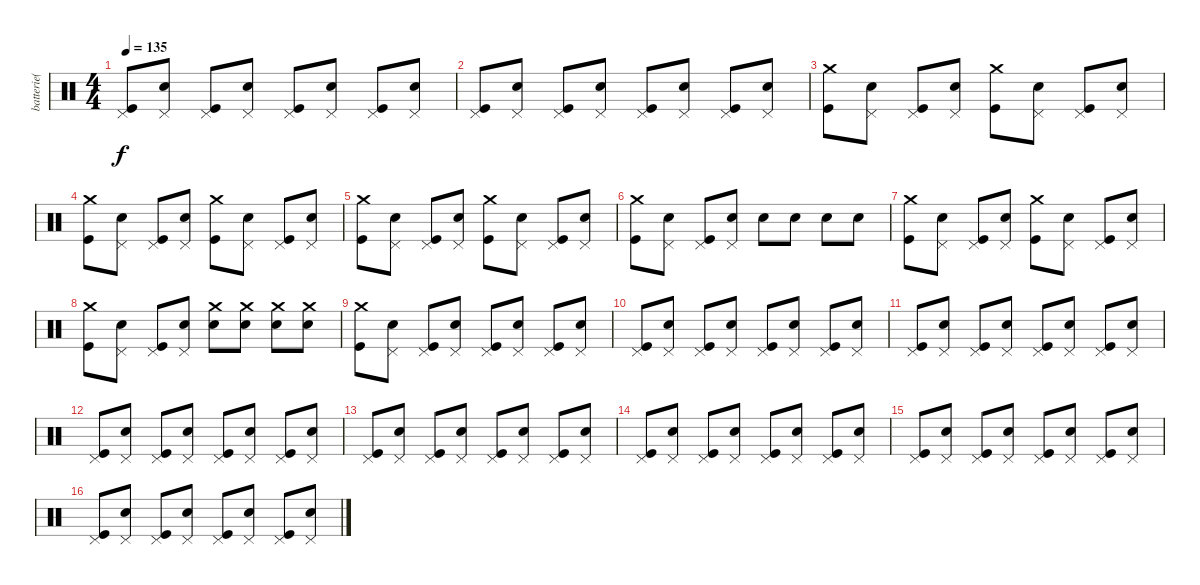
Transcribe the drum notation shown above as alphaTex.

\track ("batterie( Yureesh )" "batterie( ") {instrument percussion}
\staff {score}
\articulation defaults
\ts (4 4)
\tempo 135
\clef neutral
\ks c
("Pedal Hi-Hat (hit)" "Kick (hit)").8{dy f} ("Pedal Hi-Hat (hit)" "Snare (hit) 2").8 ("Pedal Hi-Hat (hit)" "Kick (hit)").8 ("Pedal Hi-Hat (hit)" "Snare (hit) 2").8 ("Pedal Hi-Hat (hit)" "Kick (hit)").8 ("Pedal Hi-Hat (hit)" "Snare (hit) 2").8 ("Pedal Hi-Hat (hit)" "Kick (hit)").8 ("Pedal Hi-Hat (hit)" "Snare (hit) 2").8 |
("Pedal Hi-Hat (hit)" "Kick (hit)").8 ("Pedal Hi-Hat (hit)" "Snare (hit) 2").8 ("Pedal Hi-Hat (hit)" "Kick (hit)").8 ("Pedal Hi-Hat (hit)" "Snare (hit) 2").8 ("Pedal Hi-Hat (hit)" "Kick (hit)").8 ("Pedal Hi-Hat (hit)" "Snare (hit) 2").8 ("Pedal Hi-Hat (hit)" "Kick (hit)").8 ("Pedal Hi-Hat (hit)" "Snare (hit) 2").8 |
("Crash medium (hit)" "Kick (hit)").8 ("Pedal Hi-Hat (hit)" "Snare (hit) 2").8 ("Pedal Hi-Hat (hit)" "Kick (hit)").8 ("Pedal Hi-Hat (hit)" "Snare (hit) 2").8 ("Crash medium (hit)" "Kick (hit)").8 ("Pedal Hi-Hat (hit)" "Snare (hit) 2").8 ("Pedal Hi-Hat (hit)" "Kick (hit)").8 ("Pedal Hi-Hat (hit)" "Snare (hit) 2").8 |
("Crash medium (hit)" "Kick (hit)").8 ("Pedal Hi-Hat (hit)" "Snare (hit) 2").8 ("Pedal Hi-Hat (hit)" "Kick (hit)").8 ("Pedal Hi-Hat (hit)" "Snare (hit) 2").8 ("Crash medium (hit)" "Kick (hit)").8 ("Pedal Hi-Hat (hit)" "Snare (hit) 2").8 ("Pedal Hi-Hat (hit)" "Kick (hit)").8 ("Pedal Hi-Hat (hit)" "Snare (hit) 2").8 |
("Crash medium (hit)" "Kick (hit)").8 ("Pedal Hi-Hat (hit)" "Snare (hit) 2").8 ("Pedal Hi-Hat (hit)" "Kick (hit)").8 ("Pedal Hi-Hat (hit)" "Snare (hit) 2").8 ("Crash medium (hit)" "Kick (hit)").8 ("Pedal Hi-Hat (hit)" "Snare (hit) 2").8 ("Pedal Hi-Hat (hit)" "Kick (hit)").8 ("Pedal Hi-Hat (hit)" "Snare (hit) 2").8 |
("Crash medium (hit)" "Kick (hit)").8 ("Pedal Hi-Hat (hit)" "Snare (hit) 2").8 ("Pedal Hi-Hat (hit)" "Kick (hit)").8 ("Pedal Hi-Hat (hit)" "Snare (hit) 2").8 "Snare (hit) 2".8 "Snare (hit) 2".8 "Snare (hit) 2".8 "Snare (hit) 2".8 |
("Crash medium (hit)" "Kick (hit)").8 ("Pedal Hi-Hat (hit)" "Snare (hit) 2").8 ("Pedal Hi-Hat (hit)" "Kick (hit)").8 ("Pedal Hi-Hat (hit)" "Snare (hit) 2").8 ("Crash medium (hit)" "Kick (hit)").8 ("Pedal Hi-Hat (hit)" "Snare (hit) 2").8 ("Pedal Hi-Hat (hit)" "Kick (hit)").8 ("Pedal Hi-Hat (hit)" "Snare (hit) 2").8 |
("Crash medium (hit)" "Kick (hit)").8 ("Pedal Hi-Hat (hit)" "Snare (hit) 2").8 ("Pedal Hi-Hat (hit)" "Kick (hit)").8 ("Pedal Hi-Hat (hit)" "Snare (hit) 2").8 ("Crash medium (hit)" "Snare (hit) 2").8 ("Crash medium (hit)" "Snare (hit) 2").8 ("Crash medium (hit)" "Snare (hit) 2").8 ("Crash medium (hit)" "Snare (hit) 2").8 |
("Crash medium (hit)" "Kick (hit)").8 ("Pedal Hi-Hat (hit)" "Snare (hit) 2").8 ("Pedal Hi-Hat (hit)" "Kick (hit)").8 ("Pedal Hi-Hat (hit)" "Snare (hit) 2").8 ("Pedal Hi-Hat (hit)" "Kick (hit)").8 ("Pedal Hi-Hat (hit)" "Snare (hit) 2").8 ("Pedal Hi-Hat (hit)" "Kick (hit)").8 ("Pedal Hi-Hat (hit)" "Snare (hit) 2").8 |
("Pedal Hi-Hat (hit)" "Kick (hit)").8 ("Pedal Hi-Hat (hit)" "Snare (hit) 2").8 ("Pedal Hi-Hat (hit)" "Kick (hit)").8 ("Pedal Hi-Hat (hit)" "Snare (hit) 2").8 ("Pedal Hi-Hat (hit)" "Kick (hit)").8 ("Pedal Hi-Hat (hit)" "Snare (hit) 2").8 ("Pedal Hi-Hat (hit)" "Kick (hit)").8 ("Pedal Hi-Hat (hit)" "Snare (hit) 2").8 |
("Pedal Hi-Hat (hit)" "Kick (hit)").8 ("Pedal Hi-Hat (hit)" "Snare (hit) 2").8 ("Pedal Hi-Hat (hit)" "Kick (hit)").8 ("Pedal Hi-Hat (hit)" "Snare (hit) 2").8 ("Pedal Hi-Hat (hit)" "Kick (hit)").8 ("Pedal Hi-Hat (hit)" "Snare (hit) 2").8 ("Pedal Hi-Hat (hit)" "Kick (hit)").8 ("Pedal Hi-Hat (hit)" "Snare (hit) 2").8 |
("Pedal Hi-Hat (hit)" "Kick (hit)").8 ("Pedal Hi-Hat (hit)" "Snare (hit) 2").8 ("Pedal Hi-Hat (hit)" "Kick (hit)").8 ("Pedal Hi-Hat (hit)" "Snare (hit) 2").8 ("Pedal Hi-Hat (hit)" "Kick (hit)").8 ("Pedal Hi-Hat (hit)" "Snare (hit) 2").8 ("Pedal Hi-Hat (hit)" "Kick (hit)").8 ("Pedal Hi-Hat (hit)" "Snare (hit) 2").8 |
("Pedal Hi-Hat (hit)" "Kick (hit)").8 ("Pedal Hi-Hat (hit)" "Snare (hit) 2").8 ("Pedal Hi-Hat (hit)" "Kick (hit)").8 ("Pedal Hi-Hat (hit)" "Snare (hit) 2").8 ("Pedal Hi-Hat (hit)" "Kick (hit)").8 ("Pedal Hi-Hat (hit)" "Snare (hit) 2").8 ("Pedal Hi-Hat (hit)" "Kick (hit)").8 ("Pedal Hi-Hat (hit)" "Snare (hit) 2").8 |
("Pedal Hi-Hat (hit)" "Kick (hit)").8 ("Pedal Hi-Hat (hit)" "Snare (hit) 2").8 ("Pedal Hi-Hat (hit)" "Kick (hit)").8 ("Pedal Hi-Hat (hit)" "Snare (hit) 2").8 ("Pedal Hi-Hat (hit)" "Kick (hit)").8 ("Pedal Hi-Hat (hit)" "Snare (hit) 2").8 ("Pedal Hi-Hat (hit)" "Kick (hit)").8 ("Pedal Hi-Hat (hit)" "Snare (hit) 2").8 |
("Pedal Hi-Hat (hit)" "Kick (hit)").8 ("Pedal Hi-Hat (hit)" "Snare (hit) 2").8 ("Pedal Hi-Hat (hit)" "Kick (hit)").8 ("Pedal Hi-Hat (hit)" "Snare (hit) 2").8 ("Pedal Hi-Hat (hit)" "Kick (hit)").8 ("Pedal Hi-Hat (hit)" "Snare (hit) 2").8 ("Pedal Hi-Hat (hit)" "Kick (hit)").8 ("Pedal Hi-Hat (hit)" "Snare (hit) 2").8 |
("Pedal Hi-Hat (hit)" "Kick (hit)").8 ("Pedal Hi-Hat (hit)" "Snare (hit) 2").8 ("Pedal Hi-Hat (hit)" "Kick (hit)").8 ("Pedal Hi-Hat (hit)" "Snare (hit) 2").8 ("Pedal Hi-Hat (hit)" "Kick (hit)").8 ("Pedal Hi-Hat (hit)" "Snare (hit) 2").8 ("Pedal Hi-Hat (hit)" "Kick (hit)").8 ("Pedal Hi-Hat (hit)" "Snare (hit) 2").8
